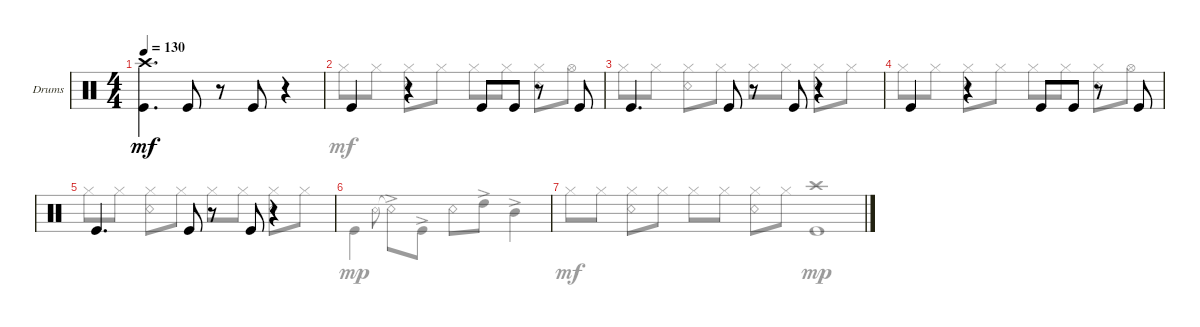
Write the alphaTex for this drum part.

\defaultSystemsLayout 4
\bracketExtendMode groupsimilarinstruments
\firstSystemTrackNameOrientation horizontal
\otherSystemsTrackNameOrientation horizontal
\track ("Drumkit" "Drums") {instrument percussion}
\staff {score}
\articulation defaults
\voice
\ts (4 4)
\tempo 130
\clef neutral
\ks c
("Kick (hit)" "Crash high (hit)").4{d dy mf} "Kick (hit)".8 r.8 "Kick (hit)".8 r.4 |
"Kick (hit)".4 r.4 "Kick (hit)".8 "Kick (hit)".8 r.8 "Kick (hit)".8 |
"Kick (hit)".4{d} "Kick (hit)".8 r.8 "Kick (hit)".8 r.4 |
"Kick (hit)".4 r.4 "Kick (hit)".8 "Kick (hit)".8 r.8 "Kick (hit)".8 |
"Kick (hit)".4{d} "Kick (hit)".8 r.8 "Kick (hit)".8 r.4 |
\tempo (120 hide)
|
\tempo (110 hide)
\voice
\clef neutral
\ottava regular
\simile none
\ks c "Hi-Hat (closed)".8{dy mf} "Hi-Hat (closed)".8
("Hi-Hat (closed)" "Snare (rim shot)").8 "Hi-Hat (closed)".8 "Hi-Hat (closed)".8 "Hi-Hat (closed)".8 ("Hi-Hat (closed)" "Snare (rim shot)").8 "Hi-Hat (closed)".8 |
"Hi-Hat (closed)".8 "Hi-Hat (closed)".8 ("Hi-Hat (closed)" "Snare (rim shot)").8 "Hi-Hat (closed)".8 "Hi-Hat (closed)".8 "Hi-Hat (closed)".8 ("Hi-Hat (closed)" "Snare (rim shot)").8 "Hi-Hat (open)".8 |
"Hi-Hat (closed)".8 "Hi-Hat (closed)".8 ("Hi-Hat (closed)" "Snare (rim shot)").8 "Hi-Hat (closed)".8 "Hi-Hat (closed)".8 "Hi-Hat (closed)".8 ("Hi-Hat (closed)" "Snare (rim shot)").8 "Hi-Hat (closed)".8 |
"Hi-Hat (closed)".8 "Hi-Hat (closed)".8 ("Hi-Hat (closed)" "Snare (rim shot)").8 "Hi-Hat (closed)".8 "Hi-Hat (closed)".8 "Hi-Hat (closed)".8 ("Hi-Hat (closed)" "Snare (rim shot)").8 "Hi-Hat (open)".8 |
"Hi-Hat (closed)".8 "Hi-Hat (closed)".8 ("Hi-Hat (closed)" "Snare (rim shot)").8 "Hi-Hat (closed)".8 "Hi-Hat (closed)".8 "Hi-Hat (closed)".8 ("Hi-Hat (closed)" "Snare (rim shot)").8 "Hi-Hat (closed)".8 |
"Kick (hit)".4{dy mp} "Snare (rim shot)".8{gr onbeat} "Snare (rim shot)"{ac t}.8 "Kick (hit)"{ac}.8 "Snare (rim shot)".8 "High Tom (hit)"{ac}.8 "Mid Tom (hit)"{ac}.4 |
("Kick (hit)" "Crash high (hit)").1
